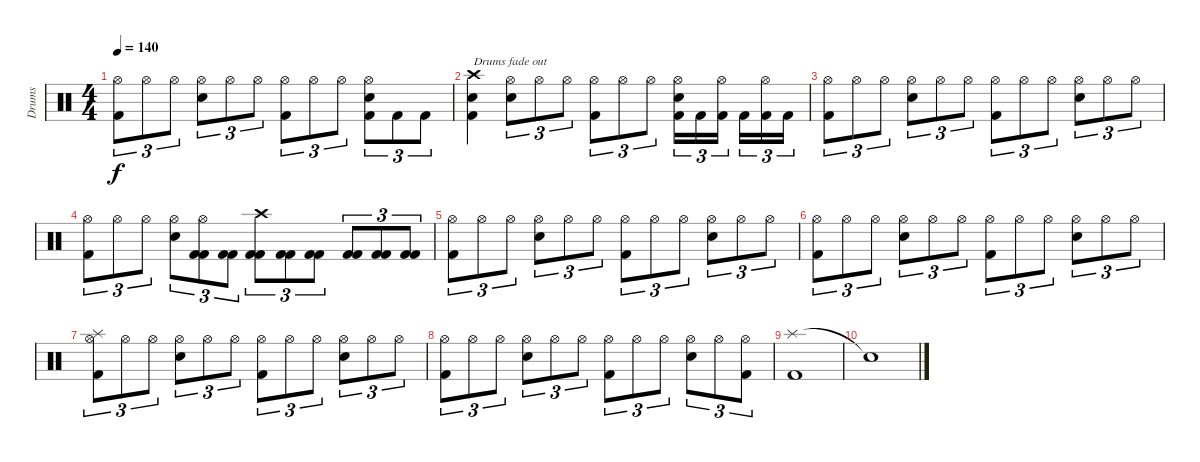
\track ("Drums" "Drums") {instrument percussion}
\staff {score}
\articulation defaults
\ts (4 4)
\tempo 140
\clef neutral
\ks c
("Hi-Hat (open)" "Kick (hit) 2").8{tu (3 2) dy f} "Hi-Hat (open)".8{tu (3 2)} "Hi-Hat (open)".8{tu (3 2)} ("Hi-Hat (open)" "Electric Snare (hit)").8{tu (3 2)} "Hi-Hat (open)".8{tu (3 2)} "Hi-Hat (open)".8{tu (3 2)} ("Hi-Hat (open)" "Kick (hit) 2").8{tu (3 2)} "Hi-Hat (open)".8{tu (3 2)} "Hi-Hat (open)".8{tu (3 2)} ("Hi-Hat (open)" "Electric Snare (hit)" "Kick (hit) 2").8{tu (3 2)} "Kick (hit) 2".8{tu (3 2)} "Kick (hit) 2".8{tu (3 2)} |
("Crash high (hit)" "Electric Snare (hit)" "Kick (hit) 2").4{txt "Drums fade out" volume 15} ("Hi-Hat (open)" "Electric Snare (hit)").8{tu (3 2)} "Hi-Hat (open)".8{tu (3 2)} "Hi-Hat (open)".8{tu (3 2)} ("Hi-Hat (open)" "Kick (hit) 2").8{tu (3 2)} "Hi-Hat (open)".8{tu (3 2)} "Hi-Hat (open)".8{tu (3 2)} ("Hi-Hat (open)" "Electric Snare (hit)" "Kick (hit) 2").16{tu (3 2)} "Kick (hit) 2".16{tu (3 2)} ("Hi-Hat (open)" "Kick (hit) 2").16{tu (3 2)} "Kick (hit) 2".16{tu (3 2)} ("Hi-Hat (open)" "Kick (hit) 2").16{tu (3 2)} "Kick (hit) 2".16{tu (3 2)} |
("Hi-Hat (open)" "Kick (hit) 2").8{tu (3 2) volume 14} "Hi-Hat (open)".8{tu (3 2)} "Hi-Hat (open)".8{tu (3 2)} ("Hi-Hat (open)" "Electric Snare (hit)").8{tu (3 2)} "Hi-Hat (open)".8{tu (3 2)} "Hi-Hat (open)".8{tu (3 2)} ("Hi-Hat (open)" "Kick (hit) 2").8{tu (3 2)} "Hi-Hat (open)".8{tu (3 2)} "Hi-Hat (open)".8{tu (3 2)} ("Hi-Hat (open)" "Electric Snare (hit)").8{tu (3 2)} "Hi-Hat (open)".8{tu (3 2)} "Hi-Hat (open)".8{tu (3 2)} |
("Hi-Hat (open)" "Kick (hit) 2").8{tu (3 2) volume 13} "Hi-Hat (open)".8{tu (3 2)} "Hi-Hat (open)".8{tu (3 2)} ("Hi-Hat (open)" "Electric Snare (hit)").8{tu (3 2)} ("Hi-Hat (open)" "Kick (hit) 2" "Kick (hit) 2").8{tu (3 2)} ("Kick (hit) 2" "Kick (hit) 2").8{tu (3 2)} ("Crash high (hit)" "Kick (hit) 2" "Kick (hit) 2").8{tu (3 2)} ("Kick (hit) 2" "Kick (hit) 2").8{tu (3 2)} ("Kick (hit) 2" "Kick (hit) 2").8{tu (3 2)} ("Kick (hit) 2" "Kick (hit) 2").8{tu (3 2)} ("Kick (hit) 2" "Kick (hit) 2").8{tu (3 2)} ("Kick (hit) 2" "Kick (hit) 2").8{tu (3 2)} |
("Hi-Hat (open)" "Kick (hit) 2").8{tu (3 2) volume 12} "Hi-Hat (open)".8{tu (3 2)} "Hi-Hat (open)".8{tu (3 2)} ("Hi-Hat (open)" "Electric Snare (hit)").8{tu (3 2)} "Hi-Hat (open)".8{tu (3 2)} "Hi-Hat (open)".8{tu (3 2)} ("Hi-Hat (open)" "Kick (hit) 2").8{tu (3 2)} "Hi-Hat (open)".8{tu (3 2)} "Hi-Hat (open)".8{tu (3 2)} ("Hi-Hat (open)" "Electric Snare (hit)").8{tu (3 2)} "Hi-Hat (open)".8{tu (3 2)} "Hi-Hat (open)".8{tu (3 2)} |
("Hi-Hat (open)" "Kick (hit) 2").8{tu (3 2) volume 11} "Hi-Hat (open)".8{tu (3 2)} "Hi-Hat (open)".8{tu (3 2)} ("Hi-Hat (open)" "Electric Snare (hit)").8{tu (3 2)} "Hi-Hat (open)".8{tu (3 2)} "Hi-Hat (open)".8{tu (3 2)} ("Hi-Hat (open)" "Kick (hit) 2").8{tu (3 2)} "Hi-Hat (open)".8{tu (3 2)} "Hi-Hat (open)".8{tu (3 2)} ("Hi-Hat (open)" "Electric Snare (hit)").8{tu (3 2)} "Hi-Hat (open)".8{tu (3 2)} "Hi-Hat (open)".8{tu (3 2)} |
("Splash (hit)" "Hi-Hat (open)" "Kick (hit) 2").8{tu (3 2) volume 10} "Hi-Hat (open)".8{tu (3 2)} "Hi-Hat (open)".8{tu (3 2)} ("Hi-Hat (open)" "Electric Snare (hit)").8{tu (3 2)} "Hi-Hat (open)".8{tu (3 2)} "Hi-Hat (open)".8{tu (3 2)} ("Hi-Hat (open)" "Kick (hit) 2").8{tu (3 2)} "Hi-Hat (open)".8{tu (3 2)} "Hi-Hat (open)".8{tu (3 2)} ("Hi-Hat (open)" "Electric Snare (hit)").8{tu (3 2)} "Hi-Hat (open)".8{tu (3 2)} "Hi-Hat (open)".8{tu (3 2)} |
("Hi-Hat (open)" "Kick (hit) 2").8{tu (3 2) volume 9} "Hi-Hat (open)".8{tu (3 2)} "Hi-Hat (open)".8{tu (3 2)} ("Hi-Hat (open)" "Electric Snare (hit)").8{tu (3 2)} "Hi-Hat (open)".8{tu (3 2)} "Hi-Hat (open)".8{tu (3 2)} ("Hi-Hat (open)" "Kick (hit) 2").8{tu (3 2)} "Hi-Hat (open)".8{tu (3 2)} "Hi-Hat (open)".8{tu (3 2)} ("Hi-Hat (open)" "Electric Snare (hit)").8{tu (3 2)} "Hi-Hat (open)".8{tu (3 2)} ("Hi-Hat (open)" "Kick (hit) 2").8{tu (3 2)} |
("Splash (hit)" "Kick (hit) 2").1{volume 8} |
"Snare (hit)"{t}.1{volume 3}
